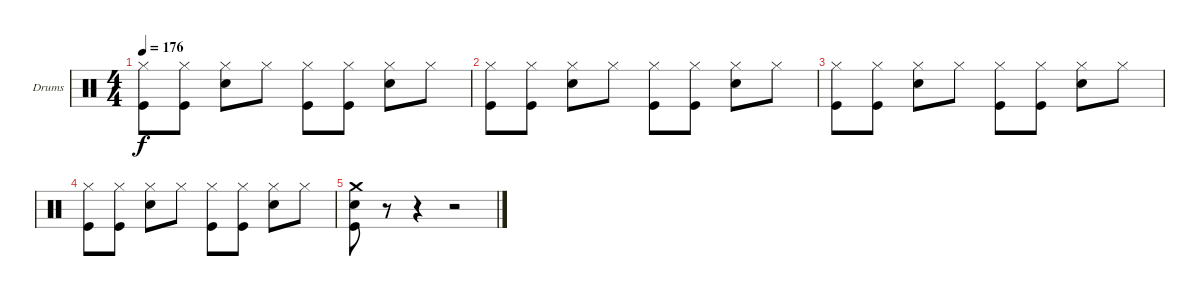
\defaultSystemsLayout 4
\bracketExtendMode groupsimilarinstruments
\firstSystemTrackNameOrientation horizontal
\otherSystemsTrackNameOrientation horizontal
\track ("Drumkit" "Drums") {instrument percussion}
\staff {score}
\articulation defaults
\ts (4 4)
\tempo 176
\clef neutral
\scale
1.02648
\ks c
("Hi-Hat (closed)" "Kick (hit)").8{dy f} ("Hi-Hat (closed)" "Kick (hit)").8 ("Hi-Hat (closed)" "Snare (hit) 2").8 "Hi-Hat (closed)".8 ("Hi-Hat (closed)" "Kick (hit)").8 ("Hi-Hat (closed)" "Kick (hit)").8 ("Hi-Hat (closed)" "Snare (hit) 2").8 "Hi-Hat (closed)".8 |
\scale
0.973518 ("Hi-Hat (closed)" "Kick (hit)").8 ("Hi-Hat (closed)" "Kick (hit)").8 ("Hi-Hat (closed)" "Snare (hit) 2").8 "Hi-Hat (closed)".8 ("Hi-Hat (closed)" "Kick (hit)").8 ("Hi-Hat (closed)" "Kick (hit)").8 ("Hi-Hat (closed)" "Snare (hit) 2").8 "Hi-Hat (closed)".8 |
\scale
1.02648 ("Hi-Hat (closed)" "Kick (hit)").8 ("Hi-Hat (closed)" "Kick (hit)").8 ("Hi-Hat (closed)" "Snare (hit) 2").8 "Hi-Hat (closed)".8 ("Hi-Hat (closed)" "Kick (hit)").8 ("Hi-Hat (closed)" "Kick (hit)").8 ("Hi-Hat (closed)" "Snare (hit) 2").8 "Hi-Hat (closed)".8 |
\scale
0.973518 ("Hi-Hat (closed)" "Kick (hit)").8 ("Hi-Hat (closed)" "Kick (hit)").8 ("Hi-Hat (closed)" "Snare (hit) 2").8 "Hi-Hat (closed)".8 ("Hi-Hat (closed)" "Kick (hit)").8 ("Hi-Hat (closed)" "Kick (hit)").8 ("Hi-Hat (closed)" "Snare (hit) 2").8 "Hi-Hat (closed)".8 |
("Crash medium (hit)" "Snare (hit) 2" "Kick (hit)").8 r.8 r.4 r.2
